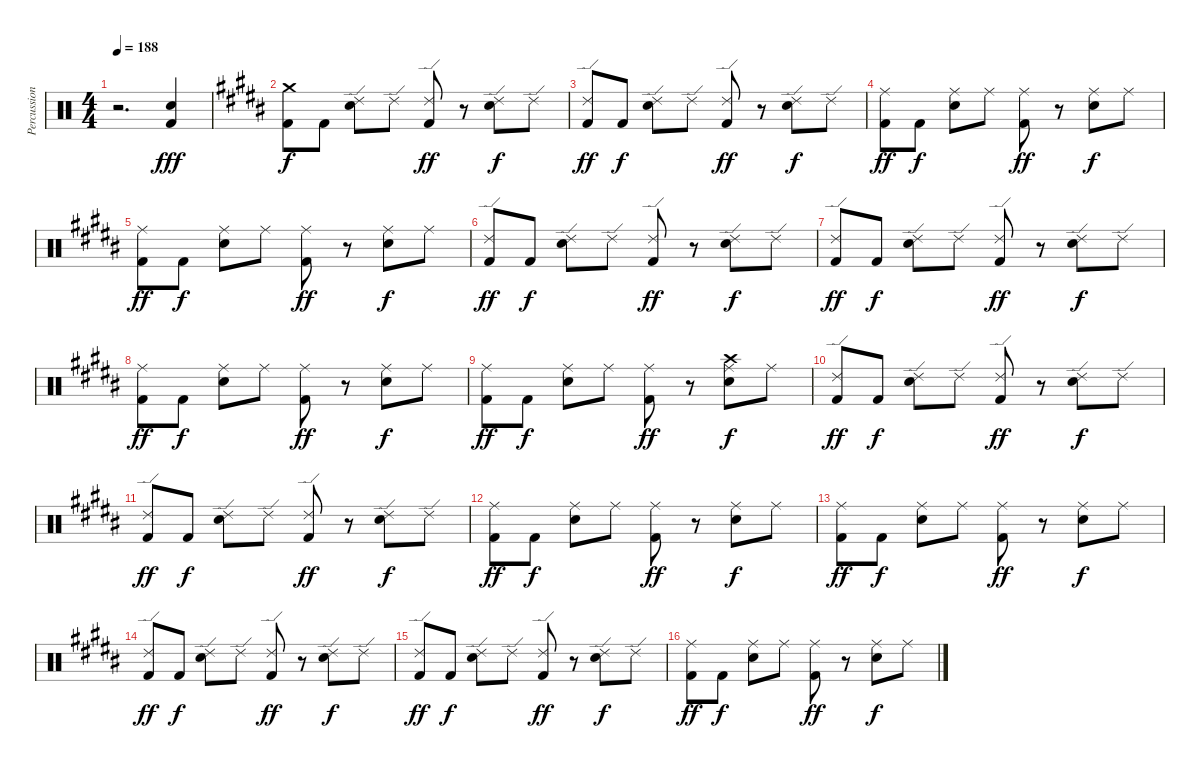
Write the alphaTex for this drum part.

\track ("Percussions" "Percussion") {instrument percussion}
\staff {score}
\articulation defaults
\ts (4 4)
\tempo 188
\clef neutral
\ks c
r.2{d dy fff} ("Snare (hit) 2" "Kick (hit) 2").4 |
\ks b
("Crash medium (hit)" "Kick (hit) 2").8{dy f} "Kick (hit) 2".8 ("Ride (edge) 2" "Snare (hit) 2").8 "Ride (edge) 2".8 ("Ride (edge) 2" "Kick (hit) 2").8{dy ff} r.8 ("Ride (edge) 2" "Snare (hit) 2").8{dy f} "Ride (edge) 2".8 |
("Ride (edge) 2" "Kick (hit) 2").8{dy ff} "Kick (hit) 2".8{dy f} ("Ride (edge) 2" "Snare (hit) 2").8 "Ride (edge) 2".8 ("Ride (edge) 2" "Kick (hit) 2").8{dy ff} r.8 ("Ride (edge) 2" "Snare (hit) 2").8{dy f} "Ride (edge) 2".8 |
("Ride (middle)" "Kick (hit) 2").8{dy ff} "Kick (hit) 2".8{dy f} ("Ride (middle)" "Snare (hit) 2").8 "Ride (middle)".8 ("Ride (middle)" "Kick (hit) 2").8{dy ff} r.8 ("Ride (middle)" "Snare (hit) 2").8{dy f} "Ride (middle)".8 |
("Ride (middle)" "Kick (hit) 2").8{dy ff} "Kick (hit) 2".8{dy f} ("Ride (middle)" "Snare (hit) 2").8 "Ride (middle)".8 ("Ride (middle)" "Kick (hit) 2").8{dy ff} r.8 ("Ride (middle)" "Snare (hit) 2").8{dy f} "Ride (middle)".8 |
("Ride (edge) 2" "Kick (hit) 2").8{dy ff} "Kick (hit) 2".8{dy f} ("Ride (edge) 2" "Snare (hit) 2").8 "Ride (edge) 2".8 ("Ride (edge) 2" "Kick (hit) 2").8{dy ff} r.8 ("Ride (edge) 2" "Snare (hit) 2").8{dy f} "Ride (edge) 2".8 |
("Ride (edge) 2" "Kick (hit) 2").8{dy ff} "Kick (hit) 2".8{dy f} ("Ride (edge) 2" "Snare (hit) 2").8 "Ride (edge) 2".8 ("Ride (edge) 2" "Kick (hit) 2").8{dy ff} r.8 ("Ride (edge) 2" "Snare (hit) 2").8{dy f} "Ride (edge) 2".8 |
("Ride (middle)" "Kick (hit) 2").8{dy ff} "Kick (hit) 2".8{dy f} ("Ride (middle)" "Snare (hit) 2").8 "Ride (middle)".8 ("Ride (middle)" "Kick (hit) 2").8{dy ff} r.8 ("Ride (middle)" "Snare (hit) 2").8{dy f} "Ride (middle)".8 |
("Ride (middle)" "Kick (hit) 2").8{dy ff} "Kick (hit) 2".8{dy f} ("Ride (middle)" "Snare (hit) 2").8 "Ride (middle)".8 ("Ride (middle)" "Kick (hit) 2").8{dy ff} r.8 ("Crash high (hit)" "Ride (middle)" "Snare (hit) 2").8{dy f} "Ride (middle)".8 |
("Ride (edge) 2" "Kick (hit) 2").8{dy ff} "Kick (hit) 2".8{dy f} ("Ride (edge) 2" "Snare (hit) 2").8 "Ride (edge) 2".8 ("Ride (edge) 2" "Kick (hit) 2").8{dy ff} r.8 ("Ride (edge) 2" "Snare (hit) 2").8{dy f} "Ride (edge) 2".8 |
("Ride (edge) 2" "Kick (hit) 2").8{dy ff} "Kick (hit) 2".8{dy f} ("Ride (edge) 2" "Snare (hit) 2").8 "Ride (edge) 2".8 ("Ride (edge) 2" "Kick (hit) 2").8{dy ff} r.8 ("Ride (edge) 2" "Snare (hit) 2").8{dy f} "Ride (edge) 2".8 |
("Ride (middle)" "Kick (hit) 2").8{dy ff} "Kick (hit) 2".8{dy f} ("Ride (middle)" "Snare (hit) 2").8 "Ride (middle)".8 ("Ride (middle)" "Kick (hit) 2").8{dy ff} r.8 ("Ride (middle)" "Snare (hit) 2").8{dy f} "Ride (middle)".8 |
("Ride (middle)" "Kick (hit) 2").8{dy ff} "Kick (hit) 2".8{dy f} ("Ride (middle)" "Snare (hit) 2").8 "Ride (middle)".8 ("Ride (middle)" "Kick (hit) 2").8{dy ff} r.8 ("Ride (middle)" "Snare (hit) 2").8{dy f} "Ride (middle)".8 |
("Ride (edge) 2" "Kick (hit) 2").8{dy ff} "Kick (hit) 2".8{dy f} ("Ride (edge) 2" "Snare (hit) 2").8 "Ride (edge) 2".8 ("Ride (edge) 2" "Kick (hit) 2").8{dy ff} r.8 ("Ride (edge) 2" "Snare (hit) 2").8{dy f} "Ride (edge) 2".8 |
("Ride (edge) 2" "Kick (hit) 2").8{dy ff} "Kick (hit) 2".8{dy f} ("Ride (edge) 2" "Snare (hit) 2").8 "Ride (edge) 2".8 ("Ride (edge) 2" "Kick (hit) 2").8{dy ff} r.8 ("Ride (edge) 2" "Snare (hit) 2").8{dy f} "Ride (edge) 2".8 |
("Ride (middle)" "Kick (hit) 2").8{dy ff} "Kick (hit) 2".8{dy f} ("Ride (middle)" "Snare (hit) 2").8 "Ride (middle)".8 ("Ride (middle)" "Kick (hit) 2").8{dy ff} r.8 ("Ride (middle)" "Snare (hit) 2").8{dy f} "Ride (middle)".8
